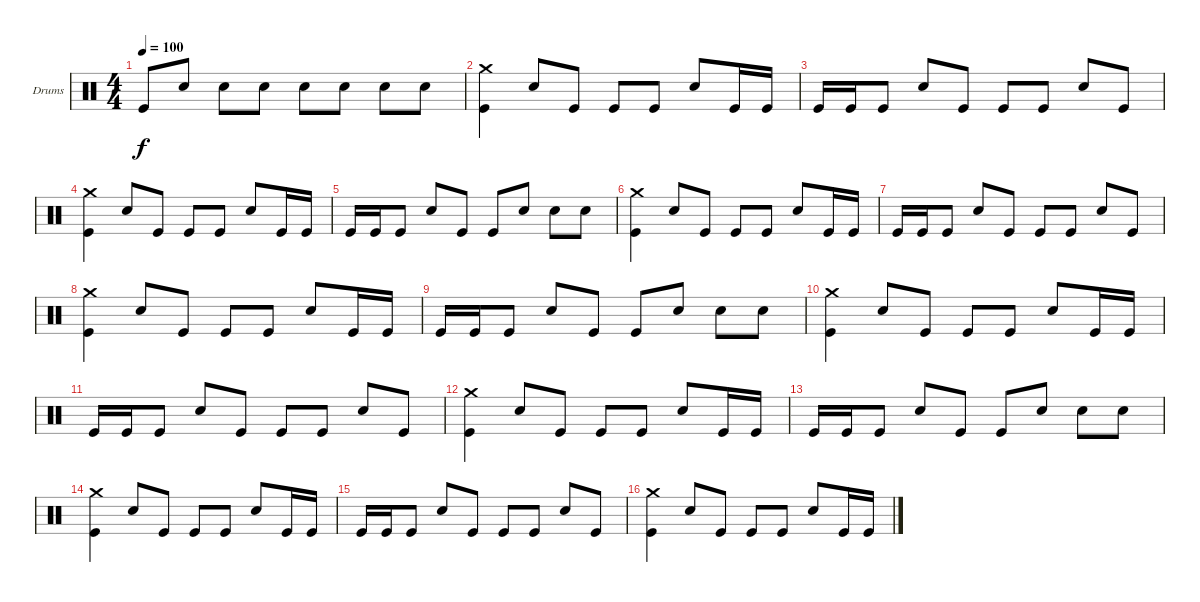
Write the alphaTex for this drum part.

\bracketExtendMode groupsimilarinstruments
\firstSystemTrackNameOrientation horizontal
\otherSystemsTrackNameOrientation horizontal
\track ("Drumkit" "Drums") {instrument percussion}
\staff {score}
\articulation defaults
\ts (4 4)
\tempo 100
\clef neutral
\ks c "Kick (hit)".8{dy f} "Snare (hit) 2".8 "Snare (hit) 2".8 "Snare (hit) 2".8 "Snare (hit) 2".8 "Snare (hit) 2".8 "Snare (hit) 2".8 "Snare (hit) 2".8
|
("Crash medium (hit)" "Kick (hit)").4 "Snare (hit) 2".8 "Kick (hit)".8 "Kick (hit)".8 "Kick (hit)".8 "Snare (hit) 2".8 "Kick (hit)".16 "Kick (hit)".16 |
"Kick (hit)".16 "Kick (hit)".16 "Kick (hit)".8 "Snare (hit) 2".8 "Kick (hit)".8 "Kick (hit)".8 "Kick (hit)".8 "Snare (hit) 2".8 "Kick (hit)".8 |
("Crash medium (hit)" "Kick (hit)").4 "Snare (hit) 2".8 "Kick (hit)".8 "Kick (hit)".8 "Kick (hit)".8 "Snare (hit) 2".8 "Kick (hit)".16 "Kick (hit)".16 |
"Kick (hit)".16 "Kick (hit)".16 "Kick (hit)".8 "Snare (hit) 2".8 "Kick (hit)".8 "Kick (hit)".8 "Snare (hit) 2".8 "Snare (hit) 2".8 "Snare (hit) 2".8 |
("Crash medium (hit)" "Kick (hit)").4 "Snare (hit) 2".8 "Kick (hit)".8 "Kick (hit)".8 "Kick (hit)".8 "Snare (hit) 2".8 "Kick (hit)".16 "Kick (hit)".16 |
"Kick (hit)".16 "Kick (hit)".16 "Kick (hit)".8 "Snare (hit) 2".8 "Kick (hit)".8 "Kick (hit)".8 "Kick (hit)".8 "Snare (hit) 2".8 "Kick (hit)".8 |
("Crash medium (hit)" "Kick (hit)").4 "Snare (hit) 2".8 "Kick (hit)".8 "Kick (hit)".8 "Kick (hit)".8 "Snare (hit) 2".8 "Kick (hit)".16 "Kick (hit)".16 |
"Kick (hit)".16 "Kick (hit)".16 "Kick (hit)".8 "Snare (hit) 2".8 "Kick (hit)".8 "Kick (hit)".8 "Snare (hit) 2".8 "Snare (hit) 2".8 "Snare (hit) 2".8 |
("Crash medium (hit)" "Kick (hit)").4 "Snare (hit) 2".8 "Kick (hit)".8 "Kick (hit)".8 "Kick (hit)".8 "Snare (hit) 2".8 "Kick (hit)".16 "Kick (hit)".16 |
"Kick (hit)".16 "Kick (hit)".16 "Kick (hit)".8 "Snare (hit) 2".8 "Kick (hit)".8 "Kick (hit)".8 "Kick (hit)".8 "Snare (hit) 2".8 "Kick (hit)".8 |
("Crash medium (hit)" "Kick (hit)").4 "Snare (hit) 2".8 "Kick (hit)".8 "Kick (hit)".8 "Kick (hit)".8 "Snare (hit) 2".8 "Kick (hit)".16 "Kick (hit)".16 |
"Kick (hit)".16 "Kick (hit)".16 "Kick (hit)".8 "Snare (hit) 2".8 "Kick (hit)".8 "Kick (hit)".8 "Snare (hit) 2".8 "Snare (hit) 2".8 "Snare (hit) 2".8 |
("Crash medium (hit)" "Kick (hit)").4 "Snare (hit) 2".8 "Kick (hit)".8 "Kick (hit)".8 "Kick (hit)".8 "Snare (hit) 2".8 "Kick (hit)".16 "Kick (hit)".16 |
"Kick (hit)".16 "Kick (hit)".16 "Kick (hit)".8 "Snare (hit) 2".8 "Kick (hit)".8 "Kick (hit)".8 "Kick (hit)".8 "Snare (hit) 2".8 "Kick (hit)".8 |
("Crash medium (hit)" "Kick (hit)").4 "Snare (hit) 2".8 "Kick (hit)".8 "Kick (hit)".8 "Kick (hit)".8 "Snare (hit) 2".8 "Kick (hit)".16 "Kick (hit)".16
